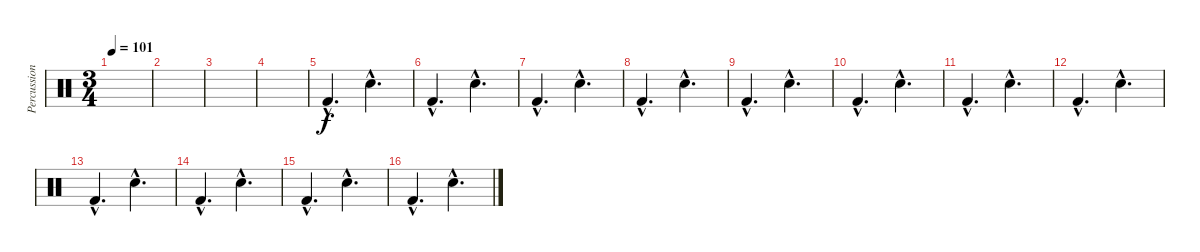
\track ("Percussions" "Percussion") {instrument percussion}
\staff {score}
\articulation defaults
\ts (3 4)
\tempo 101
\clef neutral
\ks c
|
|
|
|
"Kick (hit) 2"{hac}.4{d} "Electric Snare (hit)"{hac}.4{d} |
"Kick (hit) 2"{hac}.4{d} "Electric Snare (hit)"{hac}.4{d} |
"Kick (hit) 2"{hac}.4{d} "Electric Snare (hit)"{hac}.4{d} |
"Kick (hit) 2"{hac}.4{d} "Electric Snare (hit)"{hac}.4{d} |
"Kick (hit) 2"{hac}.4{d} "Electric Snare (hit)"{hac}.4{d} |
"Kick (hit) 2"{hac}.4{d} "Electric Snare (hit)"{hac}.4{d} |
"Kick (hit) 2"{hac}.4{d} "Electric Snare (hit)"{hac}.4{d} |
"Kick (hit) 2"{hac}.4{d} "Electric Snare (hit)"{hac}.4{d} |
"Kick (hit) 2"{hac}.4{d} "Electric Snare (hit)"{hac}.4{d} |
"Kick (hit) 2"{hac}.4{d} "Electric Snare (hit)"{hac}.4{d} |
"Kick (hit) 2"{hac}.4{d} "Electric Snare (hit)"{hac}.4{d} |
"Kick (hit) 2"{hac}.4{d} "Electric Snare (hit)"{hac}.4{d}
